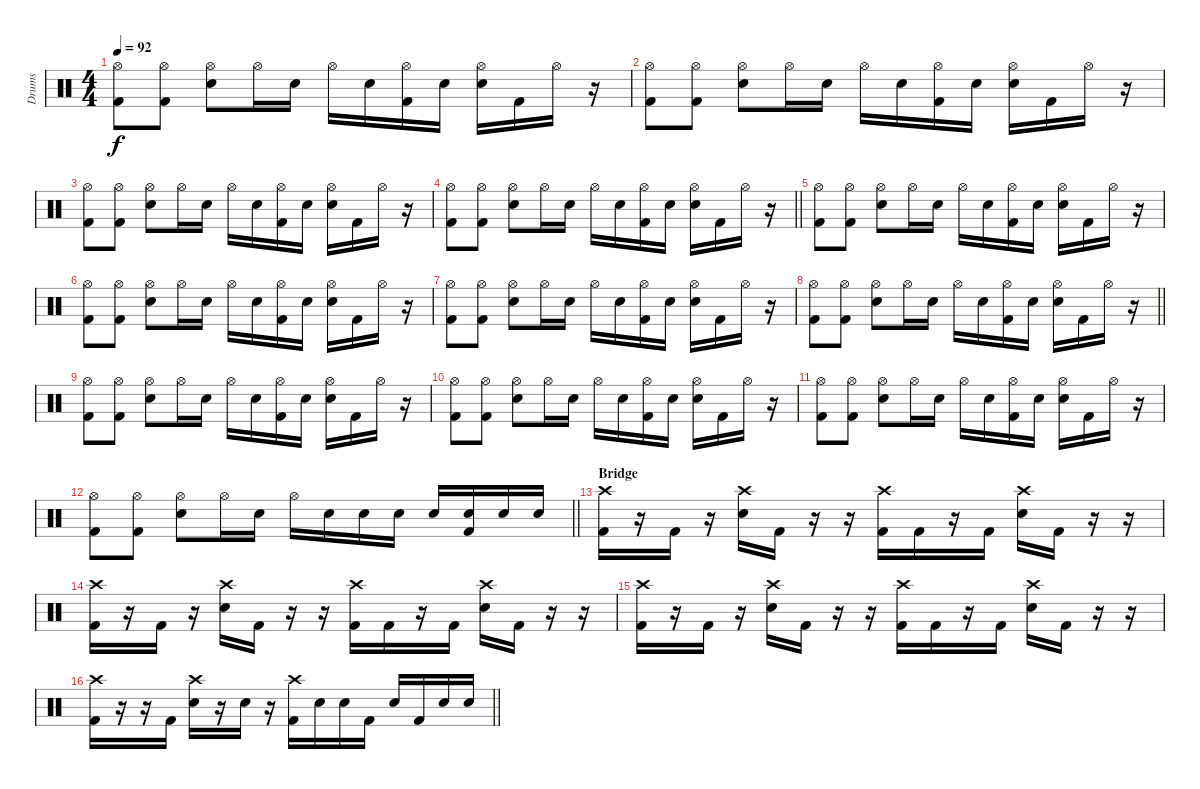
\track ("Drums" "Drums") {instrument percussion}
\staff {score}
\articulation defaults
\ts (4 4)
\tempo 92
\clef neutral
\ks c
("Hi-Hat (open)" "Kick (hit) 2").8{dy f} ("Hi-Hat (open)" "Kick (hit) 2").8 ("Hi-Hat (open)" "Snare (hit) 2").8 "Hi-Hat (open)".16 "Snare (hit) 2".16 "Hi-Hat (open)".16 "Snare (hit) 2".16 ("Hi-Hat (open)" "Kick (hit) 2").16 "Snare (hit) 2".16 ("Hi-Hat (open)" "Snare (hit) 2").16 "Kick (hit) 2".16 "Hi-Hat (open)".16 r.16 |
("Hi-Hat (open)" "Kick (hit) 2").8 ("Hi-Hat (open)" "Kick (hit) 2").8 ("Hi-Hat (open)" "Snare (hit) 2").8 "Hi-Hat (open)".16 "Snare (hit) 2".16 "Hi-Hat (open)".16 "Snare (hit) 2".16 ("Hi-Hat (open)" "Kick (hit) 2").16 "Snare (hit) 2".16 ("Hi-Hat (open)" "Snare (hit) 2").16 "Kick (hit) 2".16 "Hi-Hat (open)".16 r.16 |
("Hi-Hat (open)" "Kick (hit) 2").8 ("Hi-Hat (open)" "Kick (hit) 2").8 ("Hi-Hat (open)" "Snare (hit) 2").8 "Hi-Hat (open)".16 "Snare (hit) 2".16 "Hi-Hat (open)".16 "Snare (hit) 2".16 ("Hi-Hat (open)" "Kick (hit) 2").16 "Snare (hit) 2".16 ("Hi-Hat (open)" "Snare (hit) 2").16 "Kick (hit) 2".16 "Hi-Hat (open)".16 r.16 |
\barLineRight lightlight
("Hi-Hat (open)" "Kick (hit) 2").8 ("Hi-Hat (open)" "Kick (hit) 2").8 ("Hi-Hat (open)" "Snare (hit) 2").8 "Hi-Hat (open)".16 "Snare (hit) 2".16 "Hi-Hat (open)".16 "Snare (hit) 2".16 ("Hi-Hat (open)" "Kick (hit) 2").16 "Snare (hit) 2".16 ("Hi-Hat (open)" "Snare (hit) 2").16 "Kick (hit) 2".16 "Hi-Hat (open)".16 r.16 |
("Hi-Hat (open)" "Kick (hit) 2").8 ("Hi-Hat (open)" "Kick (hit) 2").8 ("Hi-Hat (open)" "Snare (hit) 2").8 "Hi-Hat (open)".16 "Snare (hit) 2".16 "Hi-Hat (open)".16 "Snare (hit) 2".16 ("Hi-Hat (open)" "Kick (hit) 2").16 "Snare (hit) 2".16 ("Hi-Hat (open)" "Snare (hit) 2").16 "Kick (hit) 2".16 "Hi-Hat (open)".16 r.16 |
("Hi-Hat (open)" "Kick (hit) 2").8 ("Hi-Hat (open)" "Kick (hit) 2").8 ("Hi-Hat (open)" "Snare (hit) 2").8 "Hi-Hat (open)".16 "Snare (hit) 2".16 "Hi-Hat (open)".16 "Snare (hit) 2".16 ("Hi-Hat (open)" "Kick (hit) 2").16 "Snare (hit) 2".16 ("Hi-Hat (open)" "Snare (hit) 2").16 "Kick (hit) 2".16 "Hi-Hat (open)".16 r.16 |
("Hi-Hat (open)" "Kick (hit) 2").8 ("Hi-Hat (open)" "Kick (hit) 2").8 ("Hi-Hat (open)" "Snare (hit) 2").8 "Hi-Hat (open)".16 "Snare (hit) 2".16 "Hi-Hat (open)".16 "Snare (hit) 2".16 ("Hi-Hat (open)" "Kick (hit) 2").16 "Snare (hit) 2".16 ("Hi-Hat (open)" "Snare (hit) 2").16 "Kick (hit) 2".16 "Hi-Hat (open)".16 r.16 |
\barLineRight lightlight
("Hi-Hat (open)" "Kick (hit) 2").8 ("Hi-Hat (open)" "Kick (hit) 2").8 ("Hi-Hat (open)" "Snare (hit) 2").8 "Hi-Hat (open)".16 "Snare (hit) 2".16 "Hi-Hat (open)".16 "Snare (hit) 2".16 ("Hi-Hat (open)" "Kick (hit) 2").16 "Snare (hit) 2".16 ("Hi-Hat (open)" "Snare (hit) 2").16 "Kick (hit) 2".16 "Hi-Hat (open)".16 r.16 |
("Hi-Hat (open)" "Kick (hit) 2").8 ("Hi-Hat (open)" "Kick (hit) 2").8 ("Hi-Hat (open)" "Snare (hit) 2").8 "Hi-Hat (open)".16 "Snare (hit) 2".16 "Hi-Hat (open)".16 "Snare (hit) 2".16 ("Hi-Hat (open)" "Kick (hit) 2").16 "Snare (hit) 2".16 ("Hi-Hat (open)" "Snare (hit) 2").16 "Kick (hit) 2".16 "Hi-Hat (open)".16 r.16 |
("Hi-Hat (open)" "Kick (hit) 2").8 ("Hi-Hat (open)" "Kick (hit) 2").8 ("Hi-Hat (open)" "Snare (hit) 2").8 "Hi-Hat (open)".16 "Snare (hit) 2".16 "Hi-Hat (open)".16 "Snare (hit) 2".16 ("Hi-Hat (open)" "Kick (hit) 2").16 "Snare (hit) 2".16 ("Hi-Hat (open)" "Snare (hit) 2").16 "Kick (hit) 2".16 "Hi-Hat (open)".16 r.16 |
("Hi-Hat (open)" "Kick (hit) 2").8 ("Hi-Hat (open)" "Kick (hit) 2").8 ("Hi-Hat (open)" "Snare (hit) 2").8 "Hi-Hat (open)".16 "Snare (hit) 2".16 "Hi-Hat (open)".16 "Snare (hit) 2".16 ("Hi-Hat (open)" "Kick (hit) 2").16 "Snare (hit) 2".16 ("Hi-Hat (open)" "Snare (hit) 2").16 "Kick (hit) 2".16 "Hi-Hat (open)".16 r.16 |
\barLineRight lightlight
("Hi-Hat (open)" "Kick (hit) 2").8 ("Hi-Hat (open)" "Kick (hit) 2").8 ("Hi-Hat (open)" "Snare (hit) 2").8 "Hi-Hat (open)".16 "Snare (hit) 2".16 "Hi-Hat (open)".16 "Snare (hit) 2".16 "Snare (hit) 2".16 "Snare (hit) 2".16 "Snare (hit) 2".16 ("Snare (hit) 2" "Kick (hit) 2").16 "Snare (hit) 2".16 "Snare (hit) 2".16 |
\section ("" "Bridge")
("Crash high (hit)" "Kick (hit) 2").16 r.16 "Kick (hit) 2".16 r.16 ("Crash high (hit)" "Snare (hit) 2").16 "Kick (hit) 2".16 r.16 r.16 ("Crash high (hit)" "Kick (hit) 2").16 "Kick (hit) 2".16 r.16 "Kick (hit) 2".16 ("Crash high (hit)" "Snare (hit) 2").16 "Kick (hit) 2".16 r.16 r.16 |
("Crash high (hit)" "Kick (hit) 2").16 r.16 "Kick (hit) 2".16 r.16 ("Crash high (hit)" "Snare (hit) 2").16 "Kick (hit) 2".16 r.16 r.16 ("Crash high (hit)" "Kick (hit) 2").16 "Kick (hit) 2".16 r.16 "Kick (hit) 2".16 ("Crash high (hit)" "Snare (hit) 2").16 "Kick (hit) 2".16 r.16 r.16 |
("Crash high (hit)" "Kick (hit) 2").16 r.16 "Kick (hit) 2".16 r.16 ("Crash high (hit)" "Snare (hit) 2").16 "Kick (hit) 2".16 r.16 r.16 ("Crash high (hit)" "Kick (hit) 2").16 "Kick (hit) 2".16 r.16 "Kick (hit) 2".16 ("Crash high (hit)" "Snare (hit) 2").16 "Kick (hit) 2".16 r.16 r.16 |
\barLineRight lightlight
("Crash high (hit)" "Kick (hit) 2").16 r.16 r.16 "Kick (hit) 2".16 ("Crash high (hit)" "Snare (hit) 2").16 r.16 "Snare (hit) 2".16 r.16 ("Crash high (hit)" "Kick (hit) 2").16 "Snare (hit) 2".16 "Snare (hit) 2".16 "Kick (hit) 2".16 "Snare (hit) 2".16 "Kick (hit) 2".16 "Snare (hit) 2".16 "Snare (hit) 2".16
